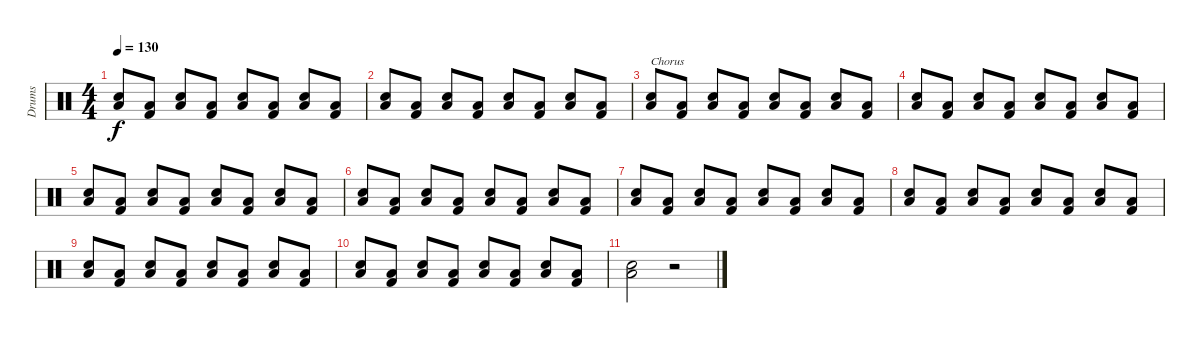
\track ("Drums" "Drums") {instrument percussion}
\staff {score}
\articulation defaults
\ts (4 4)
\tempo 130
\clef neutral
\ks c
("Snare (hit) 2" "Low Floor Tom (hit)").8{dy f} ("Low Floor Tom (hit)" "Kick (hit) 2").8 ("Snare (hit) 2" "Low Floor Tom (hit)").8 ("Kick (hit) 2" "Low Floor Tom (hit)").8 ("Snare (hit) 2" "Low Floor Tom (hit)").8 ("Kick (hit) 2" "Low Floor Tom (hit)").8 ("Snare (hit) 2" "Low Floor Tom (hit)").8 ("Kick (hit) 2" "Low Floor Tom (hit)").8 |
("Snare (hit) 2" "Low Floor Tom (hit)").8 ("Low Floor Tom (hit)" "Kick (hit) 2").8 ("Snare (hit) 2" "Low Floor Tom (hit)").8 ("Kick (hit) 2" "Low Floor Tom (hit)").8 ("Snare (hit) 2" "Low Floor Tom (hit)").8 ("Kick (hit) 2" "Low Floor Tom (hit)").8 ("Snare (hit) 2" "Low Floor Tom (hit)").8 ("Kick (hit) 2" "Low Floor Tom (hit)").8 |
("Snare (hit) 2" "Low Floor Tom (hit)").8{txt "Chorus"} ("Low Floor Tom (hit)" "Kick (hit) 2").8 ("Snare (hit) 2" "Low Floor Tom (hit)").8 ("Kick (hit) 2" "Low Floor Tom (hit)").8 ("Snare (hit) 2" "Low Floor Tom (hit)").8 ("Kick (hit) 2" "Low Floor Tom (hit)").8 ("Snare (hit) 2" "Low Floor Tom (hit)").8 ("Kick (hit) 2" "Low Floor Tom (hit)").8 |
("Snare (hit) 2" "Low Floor Tom (hit)").8 ("Low Floor Tom (hit)" "Kick (hit) 2").8 ("Snare (hit) 2" "Low Floor Tom (hit)").8 ("Kick (hit) 2" "Low Floor Tom (hit)").8 ("Snare (hit) 2" "Low Floor Tom (hit)").8 ("Kick (hit) 2" "Low Floor Tom (hit)").8 ("Snare (hit) 2" "Low Floor Tom (hit)").8 ("Kick (hit) 2" "Low Floor Tom (hit)").8 |
("Snare (hit) 2" "Low Floor Tom (hit)").8 ("Low Floor Tom (hit)" "Kick (hit) 2").8 ("Snare (hit) 2" "Low Floor Tom (hit)").8 ("Kick (hit) 2" "Low Floor Tom (hit)").8 ("Snare (hit) 2" "Low Floor Tom (hit)").8 ("Kick (hit) 2" "Low Floor Tom (hit)").8 ("Snare (hit) 2" "Low Floor Tom (hit)").8 ("Kick (hit) 2" "Low Floor Tom (hit)").8 |
("Snare (hit) 2" "Low Floor Tom (hit)").8 ("Low Floor Tom (hit)" "Kick (hit) 2").8 ("Snare (hit) 2" "Low Floor Tom (hit)").8 ("Kick (hit) 2" "Low Floor Tom (hit)").8 ("Snare (hit) 2" "Low Floor Tom (hit)").8 ("Kick (hit) 2" "Low Floor Tom (hit)").8 ("Snare (hit) 2" "Low Floor Tom (hit)").8 ("Kick (hit) 2" "Low Floor Tom (hit)").8 |
("Snare (hit) 2" "Low Floor Tom (hit)").8 ("Low Floor Tom (hit)" "Kick (hit) 2").8 ("Snare (hit) 2" "Low Floor Tom (hit)").8 ("Kick (hit) 2" "Low Floor Tom (hit)").8 ("Snare (hit) 2" "Low Floor Tom (hit)").8 ("Kick (hit) 2" "Low Floor Tom (hit)").8 ("Snare (hit) 2" "Low Floor Tom (hit)").8 ("Kick (hit) 2" "Low Floor Tom (hit)").8 |
("Snare (hit) 2" "Low Floor Tom (hit)").8 ("Low Floor Tom (hit)" "Kick (hit) 2").8 ("Snare (hit) 2" "Low Floor Tom (hit)").8 ("Kick (hit) 2" "Low Floor Tom (hit)").8 ("Snare (hit) 2" "Low Floor Tom (hit)").8 ("Kick (hit) 2" "Low Floor Tom (hit)").8 ("Snare (hit) 2" "Low Floor Tom (hit)").8 ("Kick (hit) 2" "Low Floor Tom (hit)").8 |
("Snare (hit) 2" "Low Floor Tom (hit)").8 ("Low Floor Tom (hit)" "Kick (hit) 2").8 ("Snare (hit) 2" "Low Floor Tom (hit)").8 ("Kick (hit) 2" "Low Floor Tom (hit)").8 ("Snare (hit) 2" "Low Floor Tom (hit)").8 ("Kick (hit) 2" "Low Floor Tom (hit)").8 ("Snare (hit) 2" "Low Floor Tom (hit)").8 ("Kick (hit) 2" "Low Floor Tom (hit)").8 |
("Snare (hit) 2" "Low Floor Tom (hit)").8 ("Low Floor Tom (hit)" "Kick (hit) 2").8 ("Snare (hit) 2" "Low Floor Tom (hit)").8 ("Kick (hit) 2" "Low Floor Tom (hit)").8 ("Snare (hit) 2" "Low Floor Tom (hit)").8 ("Kick (hit) 2" "Low Floor Tom (hit)").8 ("Snare (hit) 2" "Low Floor Tom (hit)").8 ("Kick (hit) 2" "Low Floor Tom (hit)").8 |
("Snare (hit) 2" "Low Floor Tom (hit)").2 r.2
